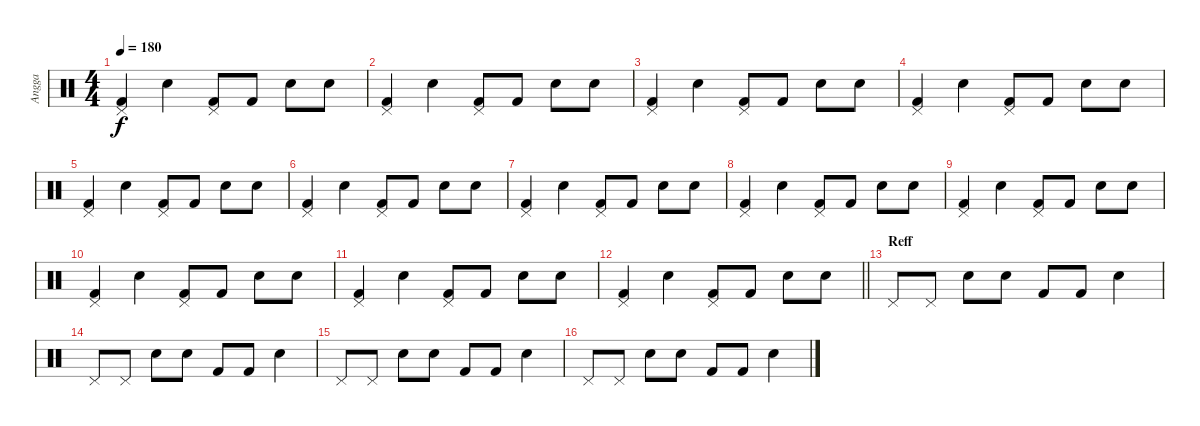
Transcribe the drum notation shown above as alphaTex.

\track ("Angga" "Angga") {instrument percussion}
\staff {score}
\articulation defaults
\ts (4 4)
\tempo 180
\clef neutral
\ks c
("Kick (hit) 2" "Pedal Hi-Hat (hit)").4{dy f} "Snare (hit) 2".4 ("Kick (hit) 2" "Pedal Hi-Hat (hit)").8 "Kick (hit) 2".8 "Snare (hit) 2".8 "Snare (hit) 2".8 |
("Kick (hit) 2" "Pedal Hi-Hat (hit)").4 "Snare (hit) 2".4 ("Kick (hit) 2" "Pedal Hi-Hat (hit)").8 "Kick (hit) 2".8 "Snare (hit) 2".8 "Snare (hit) 2".8 |
("Kick (hit) 2" "Pedal Hi-Hat (hit)").4 "Snare (hit) 2".4 ("Kick (hit) 2" "Pedal Hi-Hat (hit)").8 "Kick (hit) 2".8 "Snare (hit) 2".8 "Snare (hit) 2".8 |
("Kick (hit) 2" "Pedal Hi-Hat (hit)").4 "Snare (hit) 2".4 ("Kick (hit) 2" "Pedal Hi-Hat (hit)").8 "Kick (hit) 2".8 "Snare (hit) 2".8 "Snare (hit) 2".8 |
("Kick (hit) 2" "Pedal Hi-Hat (hit)").4 "Snare (hit) 2".4 ("Kick (hit) 2" "Pedal Hi-Hat (hit)").8 "Kick (hit) 2".8 "Snare (hit) 2".8 "Snare (hit) 2".8 |
("Kick (hit) 2" "Pedal Hi-Hat (hit)").4 "Snare (hit) 2".4 ("Kick (hit) 2" "Pedal Hi-Hat (hit)").8 "Kick (hit) 2".8 "Snare (hit) 2".8 "Snare (hit) 2".8 |
("Kick (hit) 2" "Pedal Hi-Hat (hit)").4 "Snare (hit) 2".4 ("Kick (hit) 2" "Pedal Hi-Hat (hit)").8 "Kick (hit) 2".8 "Snare (hit) 2".8 "Snare (hit) 2".8 |
("Kick (hit) 2" "Pedal Hi-Hat (hit)").4 "Snare (hit) 2".4 ("Kick (hit) 2" "Pedal Hi-Hat (hit)").8 "Kick (hit) 2".8 "Snare (hit) 2".8 "Snare (hit) 2".8 |
("Kick (hit) 2" "Pedal Hi-Hat (hit)").4 "Snare (hit) 2".4 ("Kick (hit) 2" "Pedal Hi-Hat (hit)").8 "Kick (hit) 2".8 "Snare (hit) 2".8 "Snare (hit) 2".8 |
("Kick (hit) 2" "Pedal Hi-Hat (hit)").4 "Snare (hit) 2".4 ("Kick (hit) 2" "Pedal Hi-Hat (hit)").8 "Kick (hit) 2".8 "Snare (hit) 2".8 "Snare (hit) 2".8 |
("Kick (hit) 2" "Pedal Hi-Hat (hit)").4 "Snare (hit) 2".4 ("Kick (hit) 2" "Pedal Hi-Hat (hit)").8 "Kick (hit) 2".8 "Snare (hit) 2".8 "Snare (hit) 2".8 |
\barLineRight lightlight
("Kick (hit) 2" "Pedal Hi-Hat (hit)").4 "Snare (hit) 2".4 ("Kick (hit) 2" "Pedal Hi-Hat (hit)").8 "Kick (hit) 2".8 "Snare (hit) 2".8 "Snare (hit) 2".8 |
\section ("" "Reff")
"Pedal Hi-Hat (hit)".8 "Pedal Hi-Hat (hit)".8 "Snare (hit) 2".8 "Snare (hit) 2".8 "Kick (hit) 2".8 "Kick (hit) 2".8 "Snare (hit) 2".4 |
"Pedal Hi-Hat (hit)".8 "Pedal Hi-Hat (hit)".8 "Snare (hit) 2".8 "Snare (hit) 2".8 "Kick (hit) 2".8 "Kick (hit) 2".8 "Snare (hit) 2".4 |
"Pedal Hi-Hat (hit)".8 "Pedal Hi-Hat (hit)".8 "Snare (hit) 2".8 "Snare (hit) 2".8 "Kick (hit) 2".8 "Kick (hit) 2".8 "Snare (hit) 2".4 |
"Pedal Hi-Hat (hit)".8 "Pedal Hi-Hat (hit)".8 "Snare (hit) 2".8 "Snare (hit) 2".8 "Kick (hit) 2".8 "Kick (hit) 2".8 "Snare (hit) 2".4
